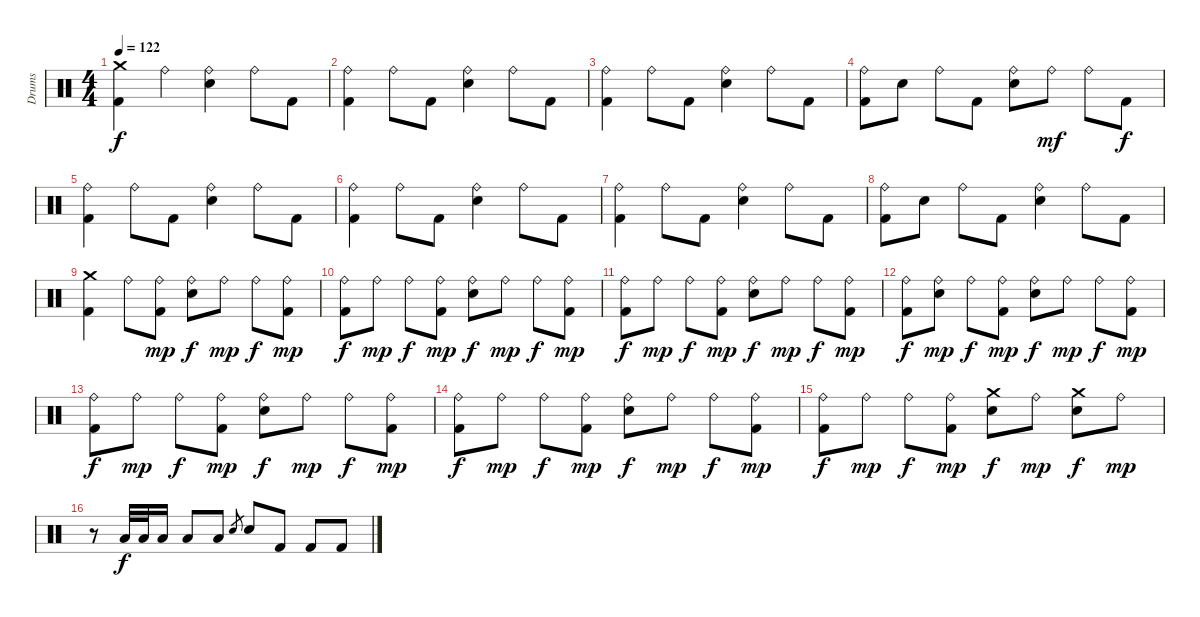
\track ("Drums" "Drums") {instrument percussion}
\staff {score}
\articulation defaults
\ts (4 4)
\tempo 122
\clef neutral
\ks c
("Crash medium (hit)" "Kick (hit) 2").4{dy f} "Ride (bell)".4 ("Ride (bell)" "Snare (hit) 2").4 "Ride (bell)".8 "Kick (hit) 2".8 |
("Ride (bell)" "Kick (hit) 2").4 "Ride (bell)".8 "Kick (hit) 2".8 ("Ride (bell)" "Snare (hit) 2").4 "Ride (bell)".8 "Kick (hit) 2".8 |
("Ride (bell)" "Kick (hit) 2").4 "Ride (bell)".8 "Kick (hit) 2".8 ("Ride (bell)" "Snare (hit) 2").4 "Ride (bell)".8 "Kick (hit) 2".8 |
("Ride (bell)" "Kick (hit) 2").8 "Snare (hit) 2".8 "Ride (bell)".8 "Kick (hit) 2".8 ("Ride (bell)" "Snare (hit) 2").8 "Ride (bell)".8{dy mf} "Ride (bell)".8 "Kick (hit) 2".8{dy f} |
("Ride (bell)" "Kick (hit) 2").4 "Ride (bell)".8 "Kick (hit) 2".8 ("Ride (bell)" "Snare (hit) 2").4 "Ride (bell)".8 "Kick (hit) 2".8 |
("Ride (bell)" "Kick (hit) 2").4 "Ride (bell)".8 "Kick (hit) 2".8 ("Ride (bell)" "Snare (hit) 2").4 "Ride (bell)".8 "Kick (hit) 2".8 |
("Ride (bell)" "Kick (hit) 2").4 "Ride (bell)".8 "Kick (hit) 2".8 ("Ride (bell)" "Snare (hit) 2").4 "Ride (bell)".8 "Kick (hit) 2".8 |
("Ride (bell)" "Kick (hit) 2").8 "Snare (hit) 2".8 "Ride (bell)".8 "Kick (hit) 2".8 ("Ride (bell)" "Snare (hit) 2").4 "Ride (bell)".8 "Kick (hit) 2".8 |
("Crash medium (hit)" "Kick (hit) 2").4 "Ride (bell)".8 ("Ride (bell)" "Kick (hit) 2").8{dy mp} ("Ride (bell)" "Snare (hit) 2").8{dy f} "Ride (bell)".8{dy mp} "Ride (bell)".8{dy f} ("Ride (bell)" "Kick (hit) 2").8{dy mp} |
("Ride (bell)" "Kick (hit) 2").8{dy f} "Ride (bell)".8{dy mp} "Ride (bell)".8{dy f} ("Ride (bell)" "Kick (hit) 2").8{dy mp} ("Ride (bell)" "Snare (hit) 2").8{dy f} "Ride (bell)".8{dy mp} "Ride (bell)".8{dy f} ("Ride (bell)" "Kick (hit) 2").8{dy mp} |
("Ride (bell)" "Kick (hit) 2").8{dy f} "Ride (bell)".8{dy mp} "Ride (bell)".8{dy f} ("Ride (bell)" "Kick (hit) 2").8{dy mp} ("Ride (bell)" "Snare (hit) 2").8{dy f} "Ride (bell)".8{dy mp} "Ride (bell)".8{dy f} ("Ride (bell)" "Kick (hit) 2").8{dy mp} |
("Ride (bell)" "Kick (hit) 2").8{dy f} ("Ride (bell)" "Snare (hit) 2").8{dy mp} "Ride (bell)".8{dy f} ("Ride (bell)" "Kick (hit) 2").8{dy mp} ("Ride (bell)" "Snare (hit) 2").8{dy f} "Ride (bell)".8{dy mp} "Ride (bell)".8{dy f} ("Ride (bell)" "Kick (hit) 2").8{dy mp} |
("Ride (bell)" "Kick (hit) 2").8{dy f} "Ride (bell)".8{dy mp} "Ride (bell)".8{dy f} ("Ride (bell)" "Kick (hit) 2").8{dy mp} ("Ride (bell)" "Snare (hit) 2").8{dy f} "Ride (bell)".8{dy mp} "Ride (bell)".8{dy f} ("Ride (bell)" "Kick (hit) 2").8{dy mp} |
("Ride (bell)" "Kick (hit) 2").8{dy f} "Ride (bell)".8{dy mp} "Ride (bell)".8{dy f} ("Ride (bell)" "Kick (hit) 2").8{dy mp} ("Ride (bell)" "Snare (hit) 2").8{dy f} "Ride (bell)".8{dy mp} "Ride (bell)".8{dy f} ("Ride (bell)" "Kick (hit) 2").8{dy mp} |
("Ride (bell)" "Kick (hit) 2").8{dy f} "Ride (bell)".8{dy mp} "Ride (bell)".8{dy f} ("Ride (bell)" "Kick (hit) 2").8{dy mp} ("Crash medium (hit)" "Snare (hit) 2").8{dy f} "Ride (bell)".8{dy mp} ("Crash medium (hit)" "Snare (hit) 2").8{dy f} "Ride (bell)".8{dy mp} |
r.8 "Low Tom (hit)".32{dy f} "Low Tom (hit)".32 "Low Tom (hit)".16 "Low Tom (hit)".8 "Low Tom (hit)".8 "Snare (hit) 2".8{gr} "Snare (hit) 2".8 "Kick (hit) 2".8 "Kick (hit) 2".8 "Kick (hit) 2".8
